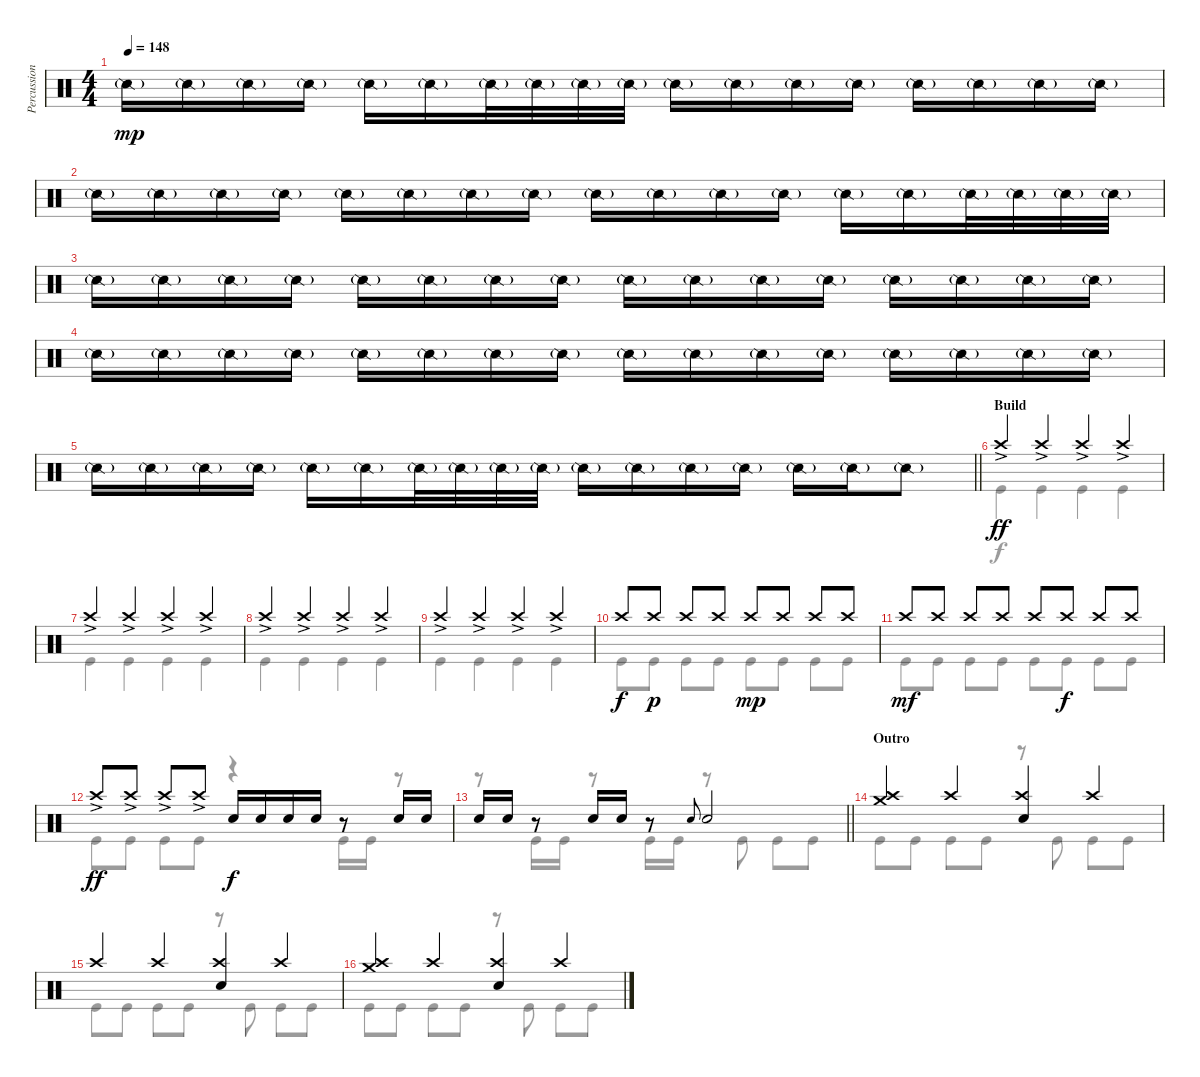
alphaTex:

\track ("Percussion" "Percussion") {instrument percussion}
\staff {score}
\articulation defaults
\voice
\ts (4 4)
\tempo 148
\clef neutral
\ks c "Snare (side stick) 2"{g}.16{dy mp} "Snare (side stick) 2"{g}.16 "Snare (side stick) 2"{g}.16 "Snare (side stick) 2"{g}.16 "Snare (side stick) 2"{g}.16 "Snare (side stick) 2"{g}.16 "Snare (side stick) 2"{g}.32 "Snare (side stick) 2"{g}.32 "Snare (side stick) 2"{g}.32 "Snare (side stick) 2"{g}.32 "Snare (side stick) 2"{g}.16 "Snare (side stick) 2"{g}.16 "Snare (side stick) 2"{g}.16 "Snare (side stick) 2"{g}.16 "Snare (side stick) 2"{g}.16 "Snare (side stick) 2"{g}.16 "Snare (side stick) 2"{g}.16 "Snare (side stick) 2"{g}.16
|
"Snare (side stick) 2"{g}.16 "Snare (side stick) 2"{g}.16 "Snare (side stick) 2"{g}.16 "Snare (side stick) 2"{g}.16 "Snare (side stick) 2"{g}.16 "Snare (side stick) 2"{g}.16 "Snare (side stick) 2"{g}.16 "Snare (side stick) 2"{g}.16 "Snare (side stick) 2"{g}.16 "Snare (side stick) 2"{g}.16 "Snare (side stick) 2"{g}.16 "Snare (side stick) 2"{g}.16 "Snare (side stick) 2"{g}.16 "Snare (side stick) 2"{g}.16 "Snare (side stick) 2"{g}.32 "Snare (side stick) 2"{g}.32 "Snare (side stick) 2"{g}.32 "Snare (side stick) 2"{g}.32 |
"Snare (side stick) 2"{g}.16 "Snare (side stick) 2"{g}.16 "Snare (side stick) 2"{g}.16 "Snare (side stick) 2"{g}.16 "Snare (side stick) 2"{g}.16 "Snare (side stick) 2"{g}.16 "Snare (side stick) 2"{g}.16 "Snare (side stick) 2"{g}.16 "Snare (side stick) 2"{g}.16 "Snare (side stick) 2"{g}.16 "Snare (side stick) 2"{g}.16 "Snare (side stick) 2"{g}.16 "Snare (side stick) 2"{g}.16 "Snare (side stick) 2"{g}.16 "Snare (side stick) 2"{g}.16 "Snare (side stick) 2"{g}.16 |
"Snare (side stick) 2"{g}.16 "Snare (side stick) 2"{g}.16 "Snare (side stick) 2"{g}.16 "Snare (side stick) 2"{g}.16 "Snare (side stick) 2"{g}.16 "Snare (side stick) 2"{g}.16 "Snare (side stick) 2"{g}.16 "Snare (side stick) 2"{g}.16 "Snare (side stick) 2"{g}.16 "Snare (side stick) 2"{g}.16 "Snare (side stick) 2"{g}.16 "Snare (side stick) 2"{g}.16 "Snare (side stick) 2"{g}.16 "Snare (side stick) 2"{g}.16 "Snare (side stick) 2"{g}.16 "Snare (side stick) 2"{g}.16 |
\barLineRight lightlight "Snare (side stick) 2"{g}.16 "Snare (side stick) 2"{g}.16 "Snare (side stick) 2"{g}.16 "Snare (side stick) 2"{g}.16 "Snare (side stick) 2"{g}.16 "Snare (side stick) 2"{g}.16 "Snare (side stick) 2"{g}.32 "Snare (side stick) 2"{g}.32 "Snare (side stick) 2"{g}.32 "Snare (side stick) 2"{g}.32 "Snare (side stick) 2"{g}.16 "Snare (side stick) 2"{g}.16 "Snare (side stick) 2"{g}.16 "Snare (side stick) 2"{g}.16 "Snare (side stick) 2"{g}.16 "Snare (side stick) 2"{g}.16 "Snare (side stick) 2"{g}.8
|
\section ("" "Build")
"Crash high (hit)"{ac}.4{dy ff} "Crash high (hit)"{ac}.4 "Crash high (hit)"{ac}.4 "Crash high (hit)"{ac}.4 |
"Crash high (hit)"{ac}.4 "Crash high (hit)"{ac}.4 "Crash high (hit)"{ac}.4 "Crash high (hit)"{ac}.4 |
"Crash high (hit)"{ac}.4 "Crash high (hit)"{ac}.4 "Crash high (hit)"{ac}.4 "Crash high (hit)"{ac}.4 |
"Crash high (hit)"{ac}.4 "Crash high (hit)"{ac}.4 "Crash high (hit)"{ac}.4 "Crash high (hit)"{ac}.4 |
"Crash high (hit)".8{dy f} "Crash high (hit)".8{dy p} "Crash high (hit)".8 "Crash high (hit)".8 "Crash high (hit)".8{dy mp} "Crash high (hit)".8 "Crash high (hit)".8 "Crash high (hit)".8 |
"Crash high (hit)".8{dy mf} "Crash high (hit)".8 "Crash high (hit)".8 "Crash high (hit)".8 "Crash high (hit)".8 "Crash high (hit)".8{dy f} "Crash high (hit)".8 "Crash high (hit)".8 |
"Crash high (hit)"{ac}.8{dy ff} "Crash high (hit)"{ac}.8 "Crash high (hit)"{ac}.8 "Crash high (hit)"{ac}.8 "Electric Snare (hit)".16{dy f} "Electric Snare (hit)".16 "Electric Snare (hit)".16 "Electric Snare (hit)".16 r.8 "Electric Snare (hit)".16 "Electric Snare (hit)".16 |
\barLineRight lightlight "Electric Snare (hit)".16 "Electric Snare (hit)".16
r.8 "Electric Snare (hit)".16 "Electric Snare (hit)".16 r.8 "Electric Snare (hit)".8{gr onbeat} "Electric Snare (hit)".2 |
\section ("" "Outro")
("Crash medium (hit)" "Crash high (hit)").4 "Crash high (hit)".4 ("Crash high (hit)" "Electric Snare (hit)").4 "Crash high (hit)".4 |
"Crash high (hit)".4 "Crash high (hit)".4 ("Crash high (hit)" "Electric Snare (hit)").4 "Crash high (hit)".4 |
("Crash medium (hit)" "Crash high (hit)").4 "Crash high (hit)".4 ("Crash high (hit)" "Electric Snare (hit)").4 "Crash high (hit)".4
\voice
\clef neutral
\ottava regular
\simile none
\ks c
|
|
|
|
\barLineRight lightlight
|
"Kick (hit)".4 "Kick (hit)".4 "Kick (hit)".4 "Kick (hit)".4 |
"Kick (hit)".4 "Kick (hit)".4 "Kick (hit)".4 "Kick (hit)".4 |
"Kick (hit)".4 "Kick (hit)".4 "Kick (hit)".4 "Kick (hit)".4 |
"Kick (hit)".4 "Kick (hit)".4 "Kick (hit)".4 "Kick (hit)".4 |
"Kick (hit)".8 "Kick (hit)".8 "Kick (hit)".8 "Kick (hit)".8 "Kick (hit)".8 "Kick (hit)".8 "Kick (hit)".8 "Kick (hit)".8 |
"Kick (hit)".8 "Kick (hit)".8 "Kick (hit)".8 "Kick (hit)".8 "Kick (hit)".8 "Kick (hit)".8 "Kick (hit)".8 "Kick (hit)".8 |
"Kick (hit)".8 "Kick (hit)".8 "Kick (hit)".8 "Kick (hit)".8 r.4 "Kick (hit)".16 "Kick (hit)".16 r.8 |
\barLineRight lightlight
r.8 "Kick (hit)".16 "Kick (hit)".16 r.8 "Kick (hit)".16 "Kick (hit)".16 r.8 "Kick (hit)".8 "Kick (hit)".8 "Kick (hit)".8 |
"Kick (hit)".8 "Kick (hit)".8 "Kick (hit)".8 "Kick (hit)".8 r.8 "Kick (hit)".8 "Kick (hit)".8 "Kick (hit)".8 |
"Kick (hit)".8 "Kick (hit)".8 "Kick (hit)".8 "Kick (hit)".8 r.8 "Kick (hit)".8 "Kick (hit)".8 "Kick (hit)".8 |
"Kick (hit)".8 "Kick (hit)".8 "Kick (hit)".8 "Kick (hit)".8 r.8 "Kick (hit)".8 "Kick (hit)".8 "Kick (hit)".8
